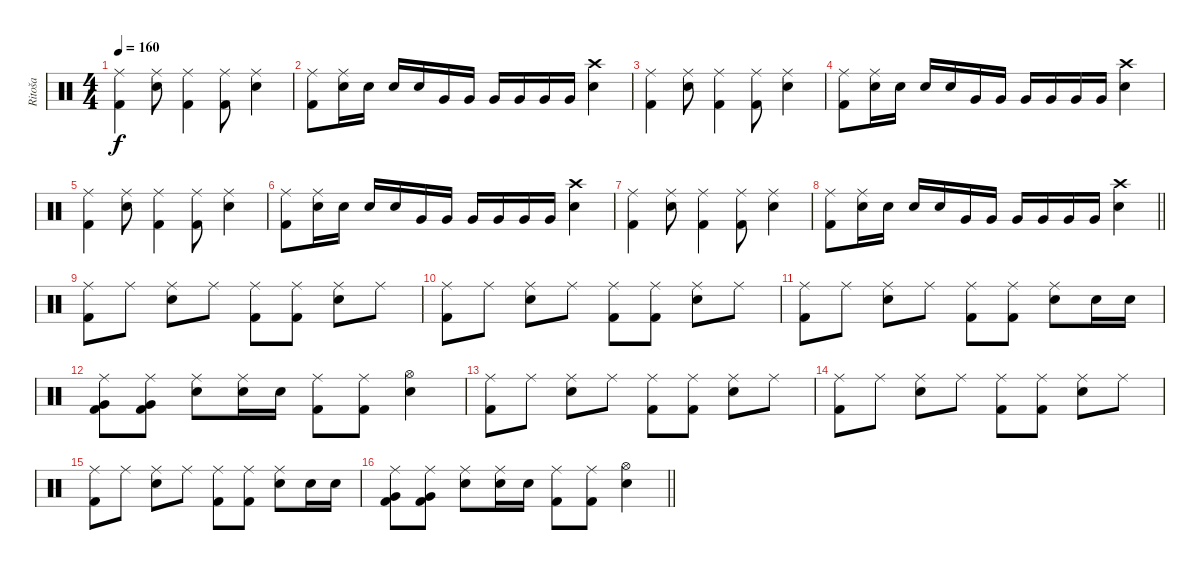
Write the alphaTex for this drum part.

\track ("Ritoša" "Ritoša") {instrument percussion}
\staff {score}
\articulation defaults
\ts (4 4)
\tempo 160
\clef neutral
\ks c
("Ride (middle)" "Kick (hit) 2").4{dy f} ("Ride (middle)" "Electric Snare (hit)").8 ("Ride (middle)" "Kick (hit) 2").4 ("Ride (middle)" "Kick (hit) 2").8 ("Ride (middle)" "Electric Snare (hit)").4 |
("Ride (middle)" "Kick (hit) 2").8 ("Ride (middle)" "Electric Snare (hit)").16 "Electric Snare (hit)".16 "Electric Snare (hit)".16 "Electric Snare (hit)".16 "Very Low Tom (hit)".16 "Very Low Tom (hit)".16 "Very Low Tom (hit)".16 "Very Low Tom (hit)".16 "Very Low Tom (hit)".16 "Very Low Tom (hit)".16 ("Crash high (hit)" "Electric Snare (hit)").4 |
("Ride (middle)" "Kick (hit) 2").4 ("Ride (middle)" "Electric Snare (hit)").8 ("Ride (middle)" "Kick (hit) 2").4 ("Ride (middle)" "Kick (hit) 2").8 ("Ride (middle)" "Electric Snare (hit)").4 |
("Ride (middle)" "Kick (hit) 2").8 ("Ride (middle)" "Electric Snare (hit)").16 "Electric Snare (hit)".16 "Electric Snare (hit)".16 "Electric Snare (hit)".16 "Very Low Tom (hit)".16 "Very Low Tom (hit)".16 "Very Low Tom (hit)".16 "Very Low Tom (hit)".16 "Very Low Tom (hit)".16 "Very Low Tom (hit)".16 ("Crash high (hit)" "Electric Snare (hit)").4 |
("Ride (middle)" "Kick (hit) 2").4 ("Ride (middle)" "Electric Snare (hit)").8 ("Ride (middle)" "Kick (hit) 2").4 ("Ride (middle)" "Kick (hit) 2").8 ("Ride (middle)" "Electric Snare (hit)").4 |
("Ride (middle)" "Kick (hit) 2").8 ("Ride (middle)" "Electric Snare (hit)").16 "Electric Snare (hit)".16 "Electric Snare (hit)".16 "Electric Snare (hit)".16 "Very Low Tom (hit)".16 "Very Low Tom (hit)".16 "Very Low Tom (hit)".16 "Very Low Tom (hit)".16 "Very Low Tom (hit)".16 "Very Low Tom (hit)".16 ("Crash high (hit)" "Electric Snare (hit)").4 |
("Ride (middle)" "Kick (hit) 2").4 ("Ride (middle)" "Electric Snare (hit)").8 ("Ride (middle)" "Kick (hit) 2").4 ("Ride (middle)" "Kick (hit) 2").8 ("Ride (middle)" "Electric Snare (hit)").4 |
\barLineRight lightlight
("Ride (middle)" "Kick (hit) 2").8 ("Ride (middle)" "Electric Snare (hit)").16 "Electric Snare (hit)".16 "Electric Snare (hit)".16 "Electric Snare (hit)".16 "Very Low Tom (hit)".16 "Very Low Tom (hit)".16 "Very Low Tom (hit)".16 "Very Low Tom (hit)".16 "Very Low Tom (hit)".16 "Very Low Tom (hit)".16 ("Crash high (hit)" "Electric Snare (hit)").4 |
("Ride (middle)" "Kick (hit) 2").8 "Ride (middle)".8 ("Ride (middle)" "Electric Snare (hit)").8 "Ride (middle)".8 ("Ride (middle)" "Kick (hit) 2").8 ("Ride (middle)" "Kick (hit) 2").8 ("Ride (middle)" "Electric Snare (hit)").8 "Ride (middle)".8 |
("Ride (middle)" "Kick (hit) 2").8 "Ride (middle)".8 ("Ride (middle)" "Electric Snare (hit)").8 "Ride (middle)".8 ("Ride (middle)" "Kick (hit) 2").8 ("Ride (middle)" "Kick (hit) 2").8 ("Ride (middle)" "Electric Snare (hit)").8 "Ride (middle)".8 |
("Ride (middle)" "Kick (hit) 2").8 "Ride (middle)".8 ("Ride (middle)" "Electric Snare (hit)").8 "Ride (middle)".8 ("Ride (middle)" "Kick (hit) 2").8 ("Ride (middle)" "Kick (hit) 2").8 ("Ride (middle)" "Electric Snare (hit)").8 "Electric Snare (hit)".16 "Electric Snare (hit)".16 |
("Ride (middle)" "Very Low Tom (hit)" "Kick (hit) 2").8 ("Ride (middle)" "Very Low Tom (hit)" "Kick (hit) 2").8 ("Ride (middle)" "Electric Snare (hit)").8 ("Ride (middle)" "Electric Snare (hit)").16 "Electric Snare (hit)".16 ("Ride (middle)" "Kick (hit) 2").8 ("Ride (middle)" "Kick (hit) 2").8 ("Hi-Hat (open)" "Electric Snare (hit)").4 |
("Ride (middle)" "Kick (hit) 2").8 "Ride (middle)".8 ("Ride (middle)" "Electric Snare (hit)").8 "Ride (middle)".8 ("Ride (middle)" "Kick (hit) 2").8 ("Ride (middle)" "Kick (hit) 2").8 ("Ride (middle)" "Electric Snare (hit)").8 "Ride (middle)".8 |
("Ride (middle)" "Kick (hit) 2").8 "Ride (middle)".8 ("Ride (middle)" "Electric Snare (hit)").8 "Ride (middle)".8 ("Ride (middle)" "Kick (hit) 2").8 ("Ride (middle)" "Kick (hit) 2").8 ("Ride (middle)" "Electric Snare (hit)").8 "Ride (middle)".8 |
("Ride (middle)" "Kick (hit) 2").8 "Ride (middle)".8 ("Ride (middle)" "Electric Snare (hit)").8 "Ride (middle)".8 ("Ride (middle)" "Kick (hit) 2").8 ("Ride (middle)" "Kick (hit) 2").8 ("Ride (middle)" "Electric Snare (hit)").8 "Electric Snare (hit)".16 "Electric Snare (hit)".16 |
\barLineRight lightlight
("Ride (middle)" "Very Low Tom (hit)" "Kick (hit) 2").8 ("Ride (middle)" "Very Low Tom (hit)" "Kick (hit) 2").8 ("Ride (middle)" "Electric Snare (hit)").8 ("Ride (middle)" "Electric Snare (hit)").16 "Electric Snare (hit)".16 ("Ride (middle)" "Kick (hit) 2").8 ("Ride (middle)" "Kick (hit) 2").8 ("Hi-Hat (open)" "Electric Snare (hit)").4
